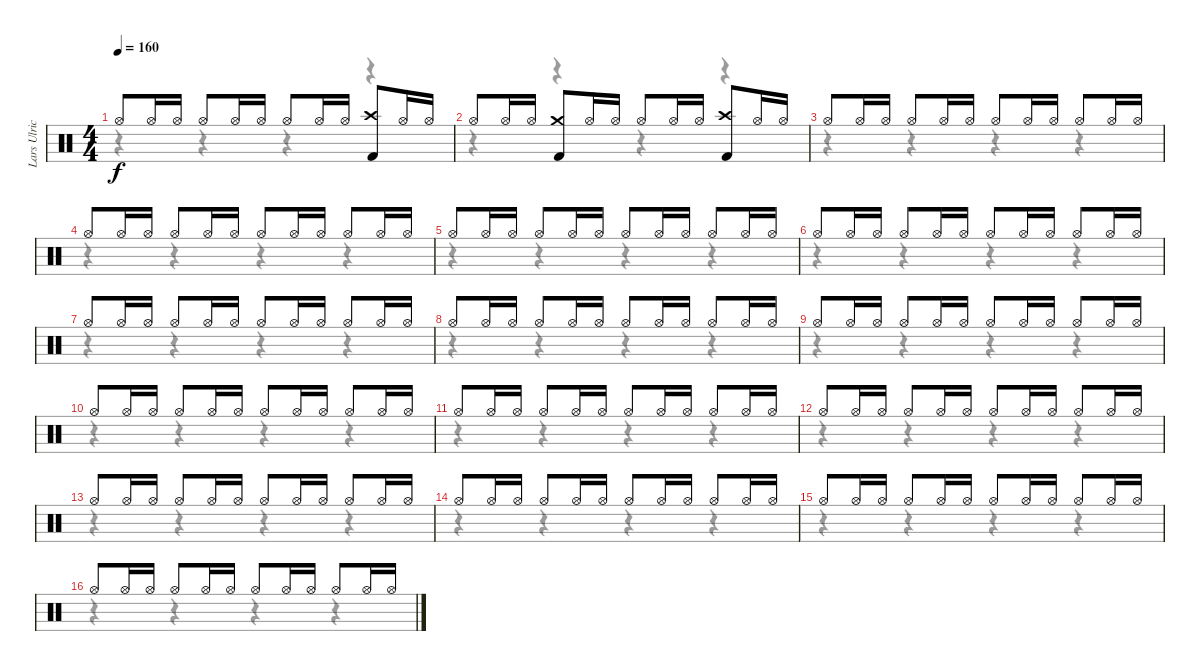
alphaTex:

\track ("Lars Ulrich" "Lars Ulric") {instrument percussion}
\staff {score}
\articulation defaults
\voice
\ts (4 4)
\tempo 160
\clef neutral
\ks c "Hi-Hat (open)".8{dy f} "Hi-Hat (open)".16 "Hi-Hat (open)".16 "Hi-Hat (open)".8 "Hi-Hat (open)".16 "Hi-Hat (open)".16 "Hi-Hat (open)".8 "Hi-Hat (open)".16 "Hi-Hat (open)".16
("Crash high (hit)" "Kick (hit) 2").8 "Hi-Hat (open)".16 "Hi-Hat (open)".16 |
"Hi-Hat (open)".8 "Hi-Hat (open)".16 "Hi-Hat (open)".16 ("Crash medium (hit)" "Kick (hit) 2").8 "Hi-Hat (open)".16 "Hi-Hat (open)".16 "Hi-Hat (open)".8 "Hi-Hat (open)".16 "Hi-Hat (open)".16 ("Crash high (hit)" "Kick (hit) 2").8 "Hi-Hat (open)".16 "Hi-Hat (open)".16 |
"Hi-Hat (open)".8 "Hi-Hat (open)".16 "Hi-Hat (open)".16 "Hi-Hat (open)".8 "Hi-Hat (open)".16 "Hi-Hat (open)".16 "Hi-Hat (open)".8 "Hi-Hat (open)".16 "Hi-Hat (open)".16 "Hi-Hat (open)".8 "Hi-Hat (open)".16 "Hi-Hat (open)".16 |
"Hi-Hat (open)".8 "Hi-Hat (open)".16 "Hi-Hat (open)".16 "Hi-Hat (open)".8 "Hi-Hat (open)".16 "Hi-Hat (open)".16 "Hi-Hat (open)".8 "Hi-Hat (open)".16 "Hi-Hat (open)".16 "Hi-Hat (open)".8 "Hi-Hat (open)".16 "Hi-Hat (open)".16 |
"Hi-Hat (open)".8 "Hi-Hat (open)".16 "Hi-Hat (open)".16 "Hi-Hat (open)".8 "Hi-Hat (open)".16 "Hi-Hat (open)".16 "Hi-Hat (open)".8 "Hi-Hat (open)".16 "Hi-Hat (open)".16 "Hi-Hat (open)".8 "Hi-Hat (open)".16 "Hi-Hat (open)".16 |
"Hi-Hat (open)".8 "Hi-Hat (open)".16 "Hi-Hat (open)".16 "Hi-Hat (open)".8 "Hi-Hat (open)".16 "Hi-Hat (open)".16 "Hi-Hat (open)".8 "Hi-Hat (open)".16 "Hi-Hat (open)".16 "Hi-Hat (open)".8 "Hi-Hat (open)".16 "Hi-Hat (open)".16 |
"Hi-Hat (open)".8 "Hi-Hat (open)".16 "Hi-Hat (open)".16 "Hi-Hat (open)".8 "Hi-Hat (open)".16 "Hi-Hat (open)".16 "Hi-Hat (open)".8 "Hi-Hat (open)".16 "Hi-Hat (open)".16 "Hi-Hat (open)".8 "Hi-Hat (open)".16 "Hi-Hat (open)".16 |
"Hi-Hat (open)".8 "Hi-Hat (open)".16 "Hi-Hat (open)".16 "Hi-Hat (open)".8 "Hi-Hat (open)".16 "Hi-Hat (open)".16 "Hi-Hat (open)".8 "Hi-Hat (open)".16 "Hi-Hat (open)".16 "Hi-Hat (open)".8 "Hi-Hat (open)".16 "Hi-Hat (open)".16 |
"Hi-Hat (open)".8 "Hi-Hat (open)".16 "Hi-Hat (open)".16 "Hi-Hat (open)".8 "Hi-Hat (open)".16 "Hi-Hat (open)".16 "Hi-Hat (open)".8 "Hi-Hat (open)".16 "Hi-Hat (open)".16 "Hi-Hat (open)".8 "Hi-Hat (open)".16 "Hi-Hat (open)".16 |
"Hi-Hat (open)".8 "Hi-Hat (open)".16 "Hi-Hat (open)".16 "Hi-Hat (open)".8 "Hi-Hat (open)".16 "Hi-Hat (open)".16 "Hi-Hat (open)".8 "Hi-Hat (open)".16 "Hi-Hat (open)".16 "Hi-Hat (open)".8 "Hi-Hat (open)".16 "Hi-Hat (open)".16 |
"Hi-Hat (open)".8 "Hi-Hat (open)".16 "Hi-Hat (open)".16 "Hi-Hat (open)".8 "Hi-Hat (open)".16 "Hi-Hat (open)".16 "Hi-Hat (open)".8 "Hi-Hat (open)".16 "Hi-Hat (open)".16 "Hi-Hat (open)".8 "Hi-Hat (open)".16 "Hi-Hat (open)".16 |
"Hi-Hat (open)".8 "Hi-Hat (open)".16 "Hi-Hat (open)".16 "Hi-Hat (open)".8 "Hi-Hat (open)".16 "Hi-Hat (open)".16 "Hi-Hat (open)".8 "Hi-Hat (open)".16 "Hi-Hat (open)".16 "Hi-Hat (open)".8 "Hi-Hat (open)".16 "Hi-Hat (open)".16 |
"Hi-Hat (open)".8 "Hi-Hat (open)".16 "Hi-Hat (open)".16 "Hi-Hat (open)".8 "Hi-Hat (open)".16 "Hi-Hat (open)".16 "Hi-Hat (open)".8 "Hi-Hat (open)".16 "Hi-Hat (open)".16 "Hi-Hat (open)".8 "Hi-Hat (open)".16 "Hi-Hat (open)".16 |
"Hi-Hat (open)".8 "Hi-Hat (open)".16 "Hi-Hat (open)".16 "Hi-Hat (open)".8 "Hi-Hat (open)".16 "Hi-Hat (open)".16 "Hi-Hat (open)".8 "Hi-Hat (open)".16 "Hi-Hat (open)".16 "Hi-Hat (open)".8 "Hi-Hat (open)".16 "Hi-Hat (open)".16 |
"Hi-Hat (open)".8 "Hi-Hat (open)".16 "Hi-Hat (open)".16 "Hi-Hat (open)".8 "Hi-Hat (open)".16 "Hi-Hat (open)".16 "Hi-Hat (open)".8 "Hi-Hat (open)".16 "Hi-Hat (open)".16 "Hi-Hat (open)".8 "Hi-Hat (open)".16 "Hi-Hat (open)".16 |
"Hi-Hat (open)".8 "Hi-Hat (open)".16 "Hi-Hat (open)".16 "Hi-Hat (open)".8 "Hi-Hat (open)".16 "Hi-Hat (open)".16 "Hi-Hat (open)".8 "Hi-Hat (open)".16 "Hi-Hat (open)".16 "Hi-Hat (open)".8 "Hi-Hat (open)".16 "Hi-Hat (open)".16
\voice
\clef neutral
\ottava regular
\simile none
\ks c
r.4{dy f} r.4 r.4 r.4 |
r.4 r.4 r.4 r.4 |
r.4 r.4 r.4 r.4 |
r.4 r.4 r.4 r.4 |
r.4 r.4 r.4 r.4 |
r.4 r.4 r.4 r.4 |
r.4 r.4 r.4 r.4 |
r.4 r.4 r.4 r.4 |
r.4 r.4 r.4 r.4 |
r.4 r.4 r.4 r.4 |
r.4 r.4 r.4 r.4 |
r.4 r.4 r.4 r.4 |
r.4 r.4 r.4 r.4 |
r.4 r.4 r.4 r.4 |
r.4 r.4 r.4 r.4 |
r.4 r.4 r.4 r.4
